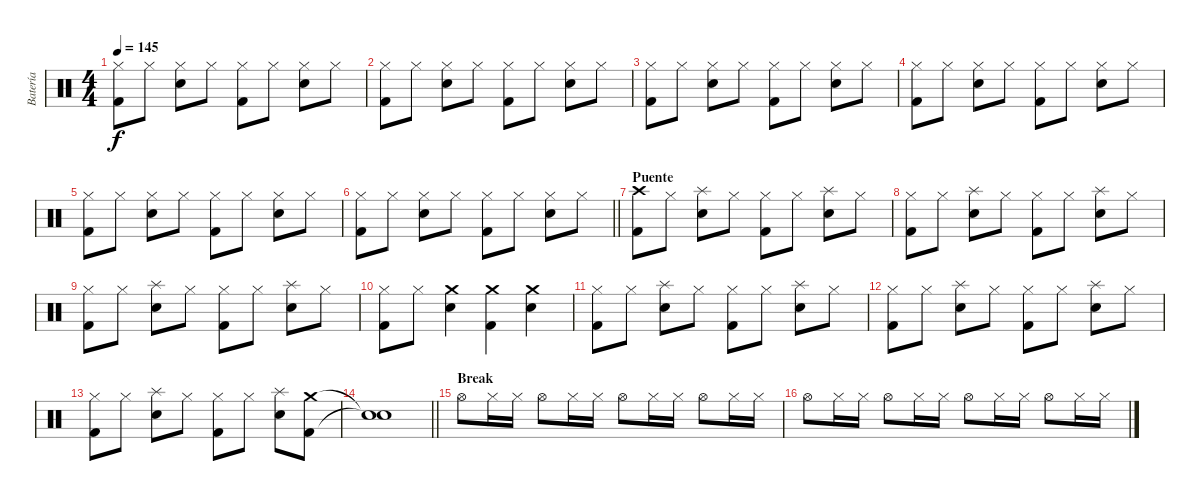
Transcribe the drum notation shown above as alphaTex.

\track ("Batería" "Batería") {instrument percussion}
\staff {score}
\articulation defaults
\ts (4 4)
\tempo 145
\clef neutral
\ks c
("Hi-Hat (closed)" "Kick (hit) 2").8{dy f} "Hi-Hat (closed)".8 ("Hi-Hat (closed)" "Snare (hit) 2").8 "Hi-Hat (closed)".8 ("Hi-Hat (closed)" "Kick (hit) 2").8 "Hi-Hat (closed)".8 ("Hi-Hat (closed)" "Snare (hit) 2").8 "Hi-Hat (closed)".8 |
("Hi-Hat (closed)" "Kick (hit) 2").8 "Hi-Hat (closed)".8 ("Hi-Hat (closed)" "Snare (hit) 2").8 "Hi-Hat (closed)".8 ("Hi-Hat (closed)" "Kick (hit) 2").8 "Hi-Hat (closed)".8 ("Hi-Hat (closed)" "Snare (hit) 2").8 "Hi-Hat (closed)".8 |
("Hi-Hat (closed)" "Kick (hit) 2").8 "Hi-Hat (closed)".8 ("Hi-Hat (closed)" "Snare (hit) 2").8 "Hi-Hat (closed)".8 ("Hi-Hat (closed)" "Kick (hit) 2").8 "Hi-Hat (closed)".8 ("Hi-Hat (closed)" "Snare (hit) 2").8 "Hi-Hat (closed)".8 |
("Hi-Hat (closed)" "Kick (hit) 2").8 "Hi-Hat (closed)".8 ("Hi-Hat (closed)" "Snare (hit) 2").8 "Hi-Hat (closed)".8 ("Hi-Hat (closed)" "Kick (hit) 2").8 "Hi-Hat (closed)".8 ("Hi-Hat (closed)" "Snare (hit) 2").8 "Hi-Hat (closed)".8 |
("Hi-Hat (closed)" "Kick (hit) 2").8 "Hi-Hat (closed)".8 ("Hi-Hat (closed)" "Snare (hit) 2").8 "Hi-Hat (closed)".8 ("Hi-Hat (closed)" "Kick (hit) 2").8 "Hi-Hat (closed)".8 ("Hi-Hat (closed)" "Snare (hit) 2").8 "Hi-Hat (closed)".8 |
\barLineRight lightlight
("Hi-Hat (closed)" "Kick (hit) 2").8 "Hi-Hat (closed)".8 ("Hi-Hat (closed)" "Snare (hit) 2").8 "Hi-Hat (closed)".8 ("Hi-Hat (closed)" "Kick (hit) 2").8 "Hi-Hat (closed)".8 ("Hi-Hat (closed)" "Snare (hit) 2").8 "Hi-Hat (closed)".8 |
\section ("" "Puente")
("Crash high (hit)" "Kick (hit) 2").8 "Hi-Hat (closed)".8 ("Splash (hit)" "Snare (hit) 2").8 "Hi-Hat (closed)".8 ("Hi-Hat (closed)" "Kick (hit) 2").8 "Hi-Hat (closed)".8 ("Splash (hit)" "Snare (hit) 2").8 "Hi-Hat (closed)".8 |
("Hi-Hat (closed)" "Kick (hit) 2").8 "Hi-Hat (closed)".8 ("Splash (hit)" "Snare (hit) 2").8 "Hi-Hat (closed)".8 ("Hi-Hat (closed)" "Kick (hit) 2").8 "Hi-Hat (closed)".8 ("Splash (hit)" "Snare (hit) 2").8 "Hi-Hat (closed)".8 |
("Hi-Hat (closed)" "Kick (hit) 2").8 "Hi-Hat (closed)".8 ("Splash (hit)" "Snare (hit) 2").8 "Hi-Hat (closed)".8 ("Hi-Hat (closed)" "Kick (hit) 2").8 "Hi-Hat (closed)".8 ("Splash (hit)" "Snare (hit) 2").8 "Hi-Hat (closed)".8 |
("Hi-Hat (closed)" "Kick (hit) 2").8 "Hi-Hat (closed)".8 ("Crash medium (hit)" "Snare (hit) 2").4 ("Crash medium (hit)" "Kick (hit) 2").4 ("Crash medium (hit)" "Snare (hit) 2").4 |
("Hi-Hat (closed)" "Kick (hit) 2").8 "Hi-Hat (closed)".8 ("Splash (hit)" "Snare (hit) 2").8 "Hi-Hat (closed)".8 ("Hi-Hat (closed)" "Kick (hit) 2").8 "Hi-Hat (closed)".8 ("Splash (hit)" "Snare (hit) 2").8 "Hi-Hat (closed)".8 |
("Hi-Hat (closed)" "Kick (hit) 2").8 "Hi-Hat (closed)".8 ("Splash (hit)" "Snare (hit) 2").8 "Hi-Hat (closed)".8 ("Hi-Hat (closed)" "Kick (hit) 2").8 "Hi-Hat (closed)".8 ("Splash (hit)" "Snare (hit) 2").8 "Hi-Hat (closed)".8 |
("Hi-Hat (closed)" "Kick (hit) 2").8 "Hi-Hat (closed)".8 ("Splash (hit)" "Snare (hit) 2").8 "Hi-Hat (closed)".8 ("Hi-Hat (closed)" "Kick (hit) 2").8 "Hi-Hat (closed)".8 ("Splash (hit)" "Snare (hit) 2").8 ("Crash medium (hit)" "Kick (hit) 2").8 |
\barLineRight lightlight
("Snare (hit)"{t} "Snare (hit)"{t}).1 |
\section ("" "Break")
"Hi-Hat (open)".8 "Hi-Hat (closed)".16 "Hi-Hat (closed)".16 "Hi-Hat (open)".8 "Hi-Hat (closed)".16 "Hi-Hat (closed)".16 "Hi-Hat (open)".8 "Hi-Hat (closed)".16 "Hi-Hat (closed)".16 "Hi-Hat (open)".8 "Hi-Hat (closed)".16 "Hi-Hat (closed)".16 |
"Hi-Hat (open)".8 "Hi-Hat (closed)".16 "Hi-Hat (closed)".16 "Hi-Hat (open)".8 "Hi-Hat (closed)".16 "Hi-Hat (closed)".16 "Hi-Hat (open)".8 "Hi-Hat (closed)".16 "Hi-Hat (closed)".16 "Hi-Hat (open)".8 "Hi-Hat (closed)".16 "Hi-Hat (closed)".16
